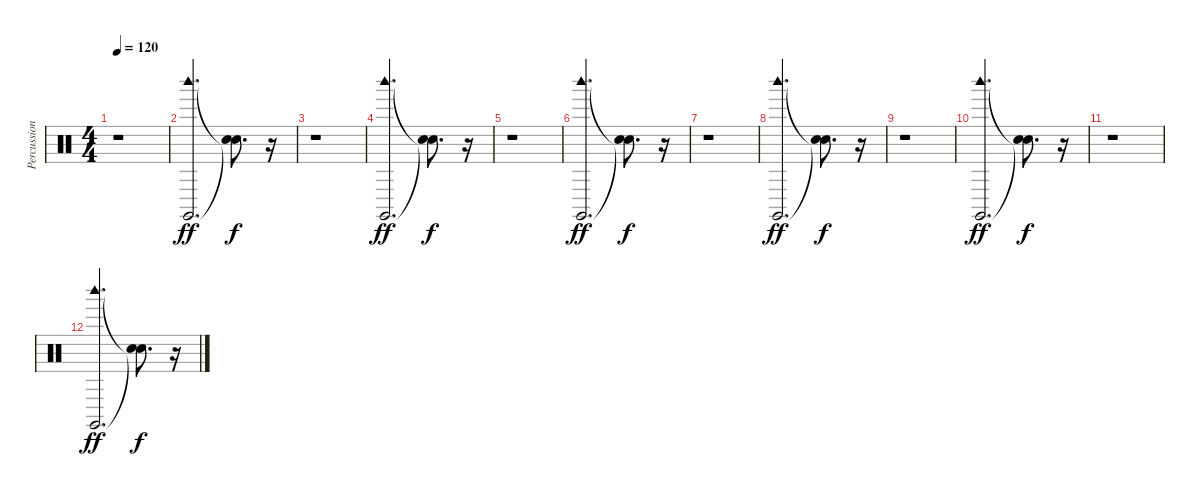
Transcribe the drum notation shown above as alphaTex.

\track ("Percussions" "Percussion") {instrument percussion}
\staff {score}
\articulation defaults
\ts (4 4)
\tempo 120
\clef neutral
\ks c
r.1{dy f} |
("Claves (hit)" "Woodblock high (hit)").2{d dy ff} ("Snare (hit)"{t} "Snare (hit)"{t}).8{d dy f} r.16 |
r.1 |
("Claves (hit)" "Woodblock high (hit)").2{d dy ff} ("Snare (hit)"{t} "Snare (hit)"{t}).8{d dy f} r.16 |
r.1 |
("Claves (hit)" "Woodblock high (hit)").2{d dy ff} ("Snare (hit)"{t} "Snare (hit)"{t}).8{d dy f} r.16 |
r.1 |
("Claves (hit)" "Woodblock high (hit)").2{d dy ff} ("Snare (hit)"{t} "Snare (hit)"{t}).8{d dy f} r.16 |
r.1 |
("Claves (hit)" "Woodblock high (hit)").2{d dy ff} ("Snare (hit)"{t} "Snare (hit)"{t}).8{d dy f} r.16 |
r.1 |
("Claves (hit)" "Woodblock high (hit)").2{d dy ff} ("Snare (hit)"{t} "Snare (hit)"{t}).8{d dy f} r.16
